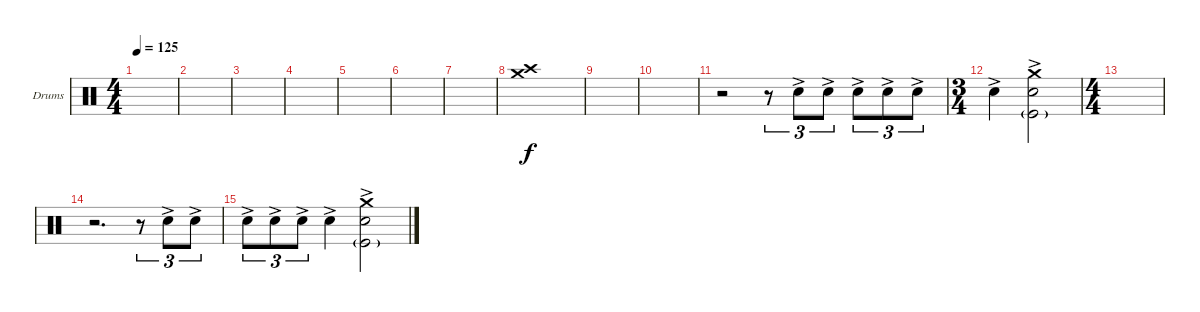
\defaultSystemsLayout 4
\bracketExtendMode groupsimilarinstruments
\firstSystemTrackNameOrientation horizontal
\otherSystemsTrackNameOrientation horizontal
\track ("Drumkit" "Drums") {instrument percussion}
\staff {score}
\articulation defaults
\ts (4 4)
\tempo 125
\clef neutral
\scale
0.333333
\ks c
|
\scale
0.333333 |
\scale
0.333333 |
\scale
0.333333 |
\scale
0.333333 |
\scale
0.333333 |
\scale
0.333333 |
\scale
0.333333 ("Crash medium (hit)" "Crash high (hit)").1 |
\scale
0.333333 |
\scale
0.262911 |
\scale
0.262911 r.2 r.8{tu (3 2)} "Snare (hit) 2"{ac}.8{tu (3 2)} "Snare (hit) 2"{ac}.8{tu (3 2)} "Snare (hit) 2"{ac}.8{tu (3 2)} "Snare (hit) 2"{ac}.8{tu (3 2)} "Snare (hit) 2"{ac}.8{tu (3 2)} |
\ts (3 4)
\scale
0.474178 "Snare (hit) 2"{ac}.4 ("Snare (hit) 2" "Kick (hit)"{g} "Crash medium (hit)"{ac}).2 |
\ts (4 4)
\scale
0.474178 |
\scale
0.262911 r.2{d} r.8{tu (3 2)} "Snare (hit) 2"{ac}.8{tu (3 2)} "Snare (hit) 2"{ac}.8{tu (3 2)} |
\scale
0.262911 "Snare (hit) 2"{ac}.8{tu (3 2)} "Snare (hit) 2"{ac}.8{tu (3 2)} "Snare (hit) 2"{ac}.8{tu (3 2)} "Snare (hit) 2"{ac}.4 ("Snare (hit) 2" "Kick (hit)"{g} "Crash medium (hit)"{ac}).2 |
\scale
0.333333
